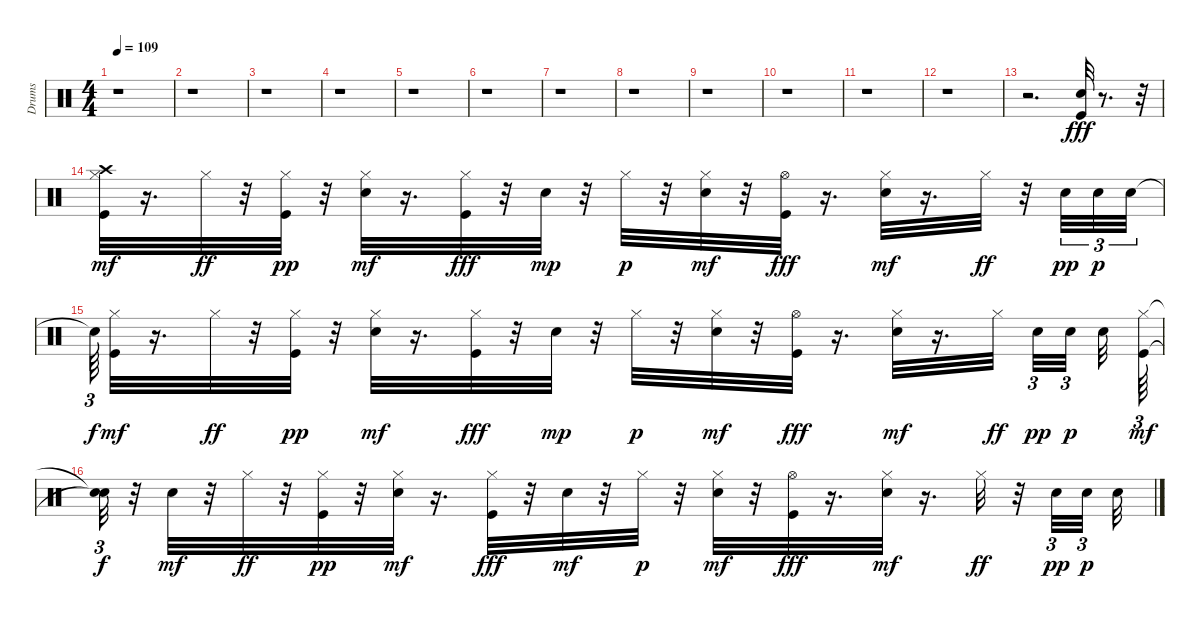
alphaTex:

\track ("Drums" "Drums") {instrument percussion}
\staff {score}
\articulation defaults
\ts (4 4)
\tempo 109
\clef neutral
\ks c
r.1{dy fff} |
r.1 |
r.1 |
r.1 |
r.1 |
r.1 |
r.1 |
r.1 |
r.1 |
r.1 |
r.1 |
r.1 |
r.2{d} ("Kick (hit)" "Snare (hit) 2").32 r.8{d} r.32 |
("Kick (hit)" "Crash high (hit)" "Hi-Hat (closed)").32{dy mf} r.16{d} "Hi-Hat (closed)".32{dy ff} r.32 ("Kick (hit)" "Hi-Hat (closed)").32{dy pp} r.32 ("Snare (hit) 2" "Hi-Hat (closed)").32{dy mf} r.16{d} ("Kick (hit)" "Hi-Hat (closed)").32{dy fff} r.32 "Snare (hit) 2".32{dy mp} r.32 "Hi-Hat (closed)".32{dy p} r.32 ("Snare (hit) 2" "Hi-Hat (closed)").32{dy mf} r.32 ("Kick (hit)" "Hi-Hat (open)").32{dy fff} r.16{d} ("Snare (hit) 2" "Hi-Hat (closed)").32{dy mf} r.16{d} "Hi-Hat (closed)".32{dy ff} r.32 "Snare (hit) 2".32{tu (3 2) dy pp} "Snare (hit) 2".32{tu (3 2) dy p} "Snare (hit) 2".32{tu (3 2)} |
"Snare (hit)"{t}.64{tu (3 2) dy f} ("Kick (hit)" "Hi-Hat (closed)").32{dy mf} r.16{d} "Hi-Hat (closed)".32{dy ff} r.32 ("Kick (hit)" "Hi-Hat (closed)").32{dy pp} r.32 ("Snare (hit) 2" "Hi-Hat (closed)").32{dy mf} r.16{d} ("Kick (hit)" "Hi-Hat (closed)").32{dy fff} r.32 "Snare (hit) 2".32{dy mp} r.32 "Hi-Hat (closed)".32{dy p} r.32 ("Snare (hit) 2" "Hi-Hat (closed)").32{dy mf} r.32 ("Kick (hit)" "Hi-Hat (open)").32{dy fff} r.16{d} ("Snare (hit) 2" "Hi-Hat (closed)").32{dy mf} r.16{d} "Hi-Hat (closed)".32{dy ff beam splitsecondary} "Snare (hit) 2".32{tu (3 2) dy pp} "Snare (hit) 2".32{tu (3 2) dy p beam splitsecondary} "Snare (hit) 2".32 ("Kick (hit)" "Hi-Hat (closed)").64{tu (3 2) dy mf} |
("Snare (hit)"{t} "Snare (hit)"{t}).32{tu (3 2) dy f} r.32 "Snare (hit) 2".32{dy mf} r.32 "Hi-Hat (closed)".32{dy ff} r.32 ("Kick (hit)" "Hi-Hat (closed)").32{dy pp} r.32 ("Snare (hit) 2" "Hi-Hat (closed)").32{dy mf} r.16{d} ("Kick (hit)" "Hi-Hat (closed)").32{dy fff} r.32 "Snare (hit) 2".32{dy mf} r.32 "Hi-Hat (closed)".32{dy p} r.32 ("Snare (hit) 2" "Hi-Hat (closed)").32{dy mf} r.32 ("Kick (hit)" "Hi-Hat (open)").32{dy fff} r.16{d} ("Snare (hit) 2" "Hi-Hat (closed)").32{dy mf} r.16{d} "Hi-Hat (closed)".32{dy ff} r.32 "Snare (hit) 2".32{tu (3 2) dy pp} "Snare (hit) 2".32{tu (3 2) dy p beam splitsecondary} "Snare (hit) 2".32
